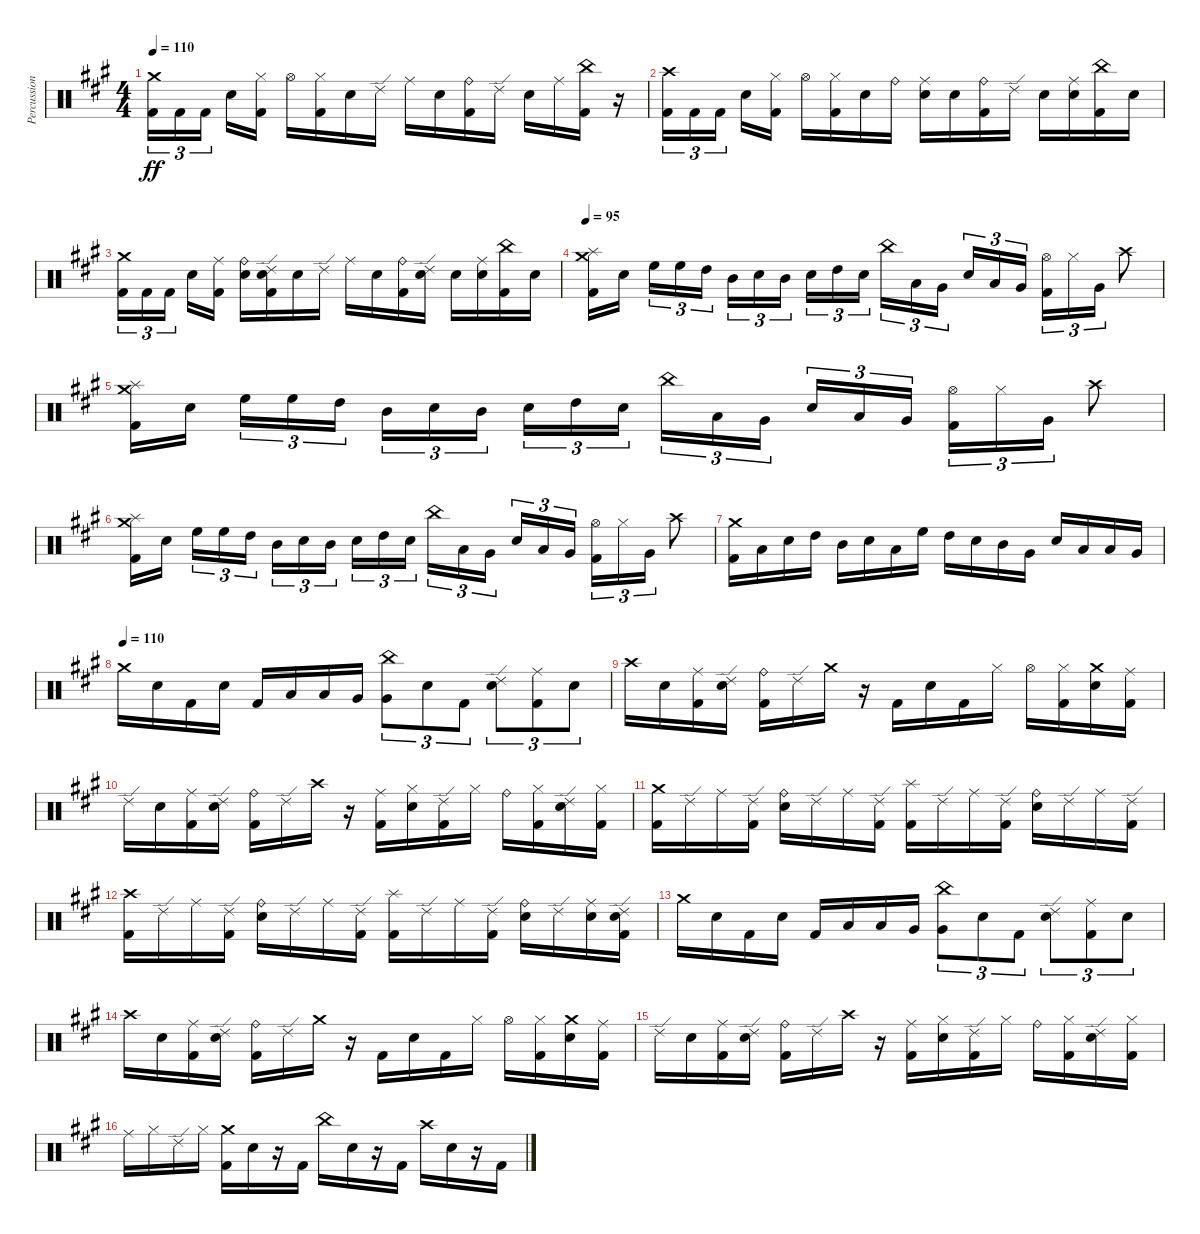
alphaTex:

\track ("Percussion" "Percussion") {instrument percussion}
\staff {score}
\articulation defaults
\ts (4 4)
\tempo 110
\clef neutral
\ks a
("Crash medium (hit)" "Kick (hit) 2").16{tu (3 2) dy ff} "Kick (hit) 2".16{tu (3 2)} "Kick (hit) 2".16{tu (3 2) beam splitsecondary} "Electric Snare (hit)".16 ("Hi-Hat (closed)" "Kick (hit) 2").16 "Hi-Hat (open)".16 ("Hi-Hat (closed)" "Kick (hit) 2").16 "Electric Snare (hit)".16 "Ride (edge) 2".16 "Ride (middle)".16 "Electric Snare (hit)".16 ("Ride (bell)" "Kick (hit) 2").16 "Ride (edge) 2".16 "Electric Snare (hit)".16 "Ride (middle)".16 ("China (hit)" "Kick (hit) 2").16 r.16 |
("Crash high (hit)" "Kick (hit) 2").16{tu (3 2)} "Kick (hit) 2".16{tu (3 2)} "Kick (hit) 2".16{tu (3 2) beam splitsecondary} "Electric Snare (hit)".16 ("Hi-Hat (closed)" "Kick (hit) 2").16 "Hi-Hat (open)".16 ("Hi-Hat (closed)" "Kick (hit) 2").16 "Electric Snare (hit)".16 "Ride (bell)".16 ("Ride (middle)" "Electric Snare (hit)").16 "Electric Snare (hit)".16 ("Ride (bell)" "Kick (hit) 2").16 "Ride (edge) 2".16 "Electric Snare (hit)".16 ("Ride (middle)" "Electric Snare (hit)").16 ("China (hit)" "Kick (hit) 2").16 "Electric Snare (hit)".16 |
("Crash medium (hit)" "Kick (hit) 2").16{tu (3 2)} "Kick (hit) 2".16{tu (3 2)} "Kick (hit) 2".16{tu (3 2) beam splitsecondary} "Electric Snare (hit)".16 ("Ride (middle)" "Kick (hit) 2").16 ("Ride (bell)" "Electric Snare (hit)").16 ("Ride (edge) 2" "Electric Snare (hit)" "Kick (hit) 2").16 "Electric Snare (hit)".16 "Ride (edge) 2".16 "Ride (middle)".16 "Electric Snare (hit)".16 ("Ride (bell)" "Kick (hit) 2").16 ("Ride (edge) 2" "Electric Snare (hit)").16 "Electric Snare (hit)".16 ("Ride (middle)" "Electric Snare (hit)").16 ("China (hit)" "Kick (hit) 2").16 "Electric Snare (hit)".16 |
\tempo 95
("Crash medium (hit)" "Splash (hit)" "Kick (hit) 2").16 "Electric Snare (hit)".16{beam splitsecondary} "High Floor Tom (hit)".16{tu (3 2)} "High Floor Tom (hit)".16{tu (3 2)} "High Tom (hit)".16{tu (3 2)} "Mid Tom (hit)".16{tu (3 2)} "Electric Snare (hit)".16{tu (3 2)} "Mid Tom (hit)".16{tu (3 2) beam splitsecondary} "Electric Snare (hit)".16{tu (3 2)} "High Tom (hit)".16{tu (3 2)} "Electric Snare (hit)".16{tu (3 2)} "China (hit)".16{tu (3 2)} "Low Tom (hit)".16{tu (3 2)} "Very Low Tom (hit)".16{tu (3 2) beam splitsecondary} "Electric Snare (hit)".16{tu (3 2)} "Low Floor Tom (hit)".16{tu (3 2)} "Very Low Tom (hit)".16{tu (3 2)} ("Hi-Hat (open)" "Kick (hit) 2").16{tu (3 2)} "Hi-Hat (closed)".16{tu (3 2)} "Very Low Tom (hit)".16{tu (3 2)} "Crash high (hit)".8 |
("Crash medium (hit)" "Splash (hit)" "Kick (hit) 2").16 "Electric Snare (hit)".16{beam splitsecondary} "High Floor Tom (hit)".16{tu (3 2)} "High Floor Tom (hit)".16{tu (3 2)} "High Tom (hit)".16{tu (3 2)} "Mid Tom (hit)".16{tu (3 2)} "Electric Snare (hit)".16{tu (3 2)} "Mid Tom (hit)".16{tu (3 2) beam splitsecondary} "Electric Snare (hit)".16{tu (3 2)} "High Tom (hit)".16{tu (3 2)} "Electric Snare (hit)".16{tu (3 2)} "China (hit)".16{tu (3 2)} "Low Tom (hit)".16{tu (3 2)} "Very Low Tom (hit)".16{tu (3 2) beam splitsecondary} "Electric Snare (hit)".16{tu (3 2)} "Low Floor Tom (hit)".16{tu (3 2)} "Very Low Tom (hit)".16{tu (3 2)} ("Hi-Hat (open)" "Kick (hit) 2").16{tu (3 2)} "Hi-Hat (closed)".16{tu (3 2)} "Very Low Tom (hit)".16{tu (3 2)} "Crash high (hit)".8 |
("Crash medium (hit)" "Splash (hit)" "Kick (hit) 2").16 "Electric Snare (hit)".16{beam splitsecondary} "High Floor Tom (hit)".16{tu (3 2)} "High Floor Tom (hit)".16{tu (3 2)} "High Tom (hit)".16{tu (3 2)} "Mid Tom (hit)".16{tu (3 2)} "Electric Snare (hit)".16{tu (3 2)} "Mid Tom (hit)".16{tu (3 2) beam splitsecondary} "Electric Snare (hit)".16{tu (3 2)} "High Tom (hit)".16{tu (3 2)} "Electric Snare (hit)".16{tu (3 2)} "China (hit)".16{tu (3 2)} "Low Tom (hit)".16{tu (3 2)} "Very Low Tom (hit)".16{tu (3 2) beam splitsecondary} "Electric Snare (hit)".16{tu (3 2)} "Low Floor Tom (hit)".16{tu (3 2)} "Very Low Tom (hit)".16{tu (3 2)} ("Hi-Hat (open)" "Kick (hit) 2").16{tu (3 2)} "Hi-Hat (closed)".16{tu (3 2)} "Very Low Tom (hit)".16{tu (3 2)} "Crash high (hit)".8 |
("Crash medium (hit)" "Kick (hit) 2").16 "Low Tom (hit)".16 "Electric Snare (hit)".16 "High Tom (hit)".16 "Mid Tom (hit)".16 "Electric Snare (hit)".16 "Low Tom (hit)".16 "High Floor Tom (hit)".16 "High Tom (hit)".16 "Electric Snare (hit)".16 "Mid Tom (hit)".16 "Very Low Tom (hit)".16 "Electric Snare (hit)".16 "Low Tom (hit)".16 "Low Floor Tom (hit)".16 "Very Low Tom (hit)".16 |
\tempo (110)
"Crash medium (hit)".16 "Electric Snare (hit)".16 "Kick (hit) 2".16 "Electric Snare (hit)".16 "Kick (hit) 2".16 "Low Tom (hit)".16 "Low Tom (hit)".16 "Very Low Tom (hit)".16 ("China (hit)" "Very Low Tom (hit)").8{tu (3 2)} "Electric Snare (hit)".8{tu (3 2)} "Kick (hit) 2".8{tu (3 2)} ("Ride (edge) 2" "Electric Snare (hit)").8{tu (3 2)} ("Ride (middle)" "Kick (hit) 2").8{tu (3 2)} "Electric Snare (hit)".8{tu (3 2)} |
"Crash high (hit)".16 "Electric Snare (hit)".16 ("Ride (middle)" "Kick (hit) 2").16 ("Ride (edge) 2" "Electric Snare (hit)").16 ("Ride (bell)" "Kick (hit) 2").16 "Ride (edge) 2".16 "Crash medium (hit)".16 r.16 "Kick (hit) 2".16 "Electric Snare (hit)".16 "Kick (hit) 2".16 "Hi-Hat (closed)".16 "Hi-Hat (open)".16 ("Hi-Hat (closed)" "Kick (hit) 2").16 ("Crash medium (hit)" "Electric Snare (hit)").16 ("Ride (middle)" "Kick (hit) 2").16 |
"Ride (edge) 2".16 "Electric Snare (hit)".16 ("Ride (middle)" "Kick (hit) 2").16 ("Ride (edge) 2" "Electric Snare (hit)").16 ("Ride (bell)" "Kick (hit) 2").16 "Ride (edge) 2".16 "Crash high (hit)".16 r.16 ("Ride (middle)" "Kick (hit) 2").16 ("Hi-Hat (closed)" "Electric Snare (hit)").16 ("Ride (edge) 2" "Kick (hit) 2").16 "Hi-Hat (closed)".16 "Ride (bell)".16 ("Hi-Hat (closed)" "Kick (hit) 2").16 ("Ride (edge) 2" "Electric Snare (hit)").16 ("Hi-Hat (closed)" "Kick (hit) 2").16 |
("Crash medium (hit)" "Kick (hit) 2").16 "Ride (edge) 2".16 "Ride (middle)".16 ("Ride (edge) 2" "Kick (hit) 2").16 ("Ride (bell)" "Electric Snare (hit)").16 "Ride (edge) 2".16 "Ride (middle)".16 ("Ride (edge) 2" "Kick (hit) 2").16 ("Splash (hit)" "Kick (hit) 2").16 "Ride (edge) 2".16 "Ride (middle)".16 ("Ride (edge) 2" "Kick (hit) 2").16 ("Ride (bell)" "Electric Snare (hit)").16 "Ride (edge) 2".16 "Ride (middle)".16 ("Ride (edge) 2" "Kick (hit) 2").16 |
("Crash high (hit)" "Kick (hit) 2").16 "Ride (edge) 2".16 "Ride (middle)".16 ("Ride (edge) 2" "Kick (hit) 2").16 ("Ride (bell)" "Electric Snare (hit)").16 "Ride (edge) 2".16 "Ride (middle)".16 ("Ride (edge) 2" "Kick (hit) 2").16 ("Splash (hit)" "Kick (hit) 2").16 "Ride (edge) 2".16 "Ride (middle)".16 ("Ride (edge) 2" "Kick (hit) 2").16 ("Ride (bell)" "Electric Snare (hit)").16 "Ride (edge) 2".16 ("Ride (middle)" "Electric Snare (hit)").16 ("Ride (edge) 2" "Electric Snare (hit)" "Kick (hit) 2").16 |
"Crash medium (hit)".16 "Electric Snare (hit)".16 "Kick (hit) 2".16 "Electric Snare (hit)".16 "Kick (hit) 2".16 "Low Tom (hit)".16 "Low Tom (hit)".16 "Very Low Tom (hit)".16 ("China (hit)" "Very Low Tom (hit)").8{tu (3 2)} "Electric Snare (hit)".8{tu (3 2)} "Kick (hit) 2".8{tu (3 2)} ("Ride (edge) 2" "Electric Snare (hit)").8{tu (3 2)} ("Ride (middle)" "Kick (hit) 2").8{tu (3 2)} "Electric Snare (hit)".8{tu (3 2)} |
"Crash high (hit)".16 "Electric Snare (hit)".16 ("Ride (middle)" "Kick (hit) 2").16 ("Ride (edge) 2" "Electric Snare (hit)").16 ("Ride (bell)" "Kick (hit) 2").16 "Ride (edge) 2".16 "Crash medium (hit)".16 r.16 "Kick (hit) 2".16 "Electric Snare (hit)".16 "Kick (hit) 2".16 "Hi-Hat (closed)".16 "Hi-Hat (open)".16 ("Hi-Hat (closed)" "Kick (hit) 2").16 ("Crash medium (hit)" "Electric Snare (hit)").16 ("Ride (middle)" "Kick (hit) 2").16 |
"Ride (edge) 2".16 "Electric Snare (hit)".16 ("Ride (middle)" "Kick (hit) 2").16 ("Ride (edge) 2" "Electric Snare (hit)").16 ("Ride (bell)" "Kick (hit) 2").16 "Ride (edge) 2".16 "Crash high (hit)".16 r.16 ("Ride (middle)" "Kick (hit) 2").16 ("Hi-Hat (closed)" "Electric Snare (hit)").16 ("Ride (edge) 2" "Kick (hit) 2").16 "Hi-Hat (closed)".16 "Ride (bell)".16 ("Hi-Hat (closed)" "Kick (hit) 2").16 ("Ride (edge) 2" "Electric Snare (hit)").16 ("Hi-Hat (closed)" "Kick (hit) 2").16 |
"Ride (middle)".16 "Hi-Hat (closed)".16 "Ride (edge) 2".16 "Hi-Hat (closed)".16 ("Crash medium (hit)" "Kick (hit) 2").16 "Electric Snare (hit)".16 r.16 "Kick (hit) 2".16 "China (hit)".16 "Electric Snare (hit)".16 r.16 "Kick (hit) 2".16 "Crash high (hit)".16 "Electric Snare (hit)".16 r.16 "Kick (hit) 2".16
